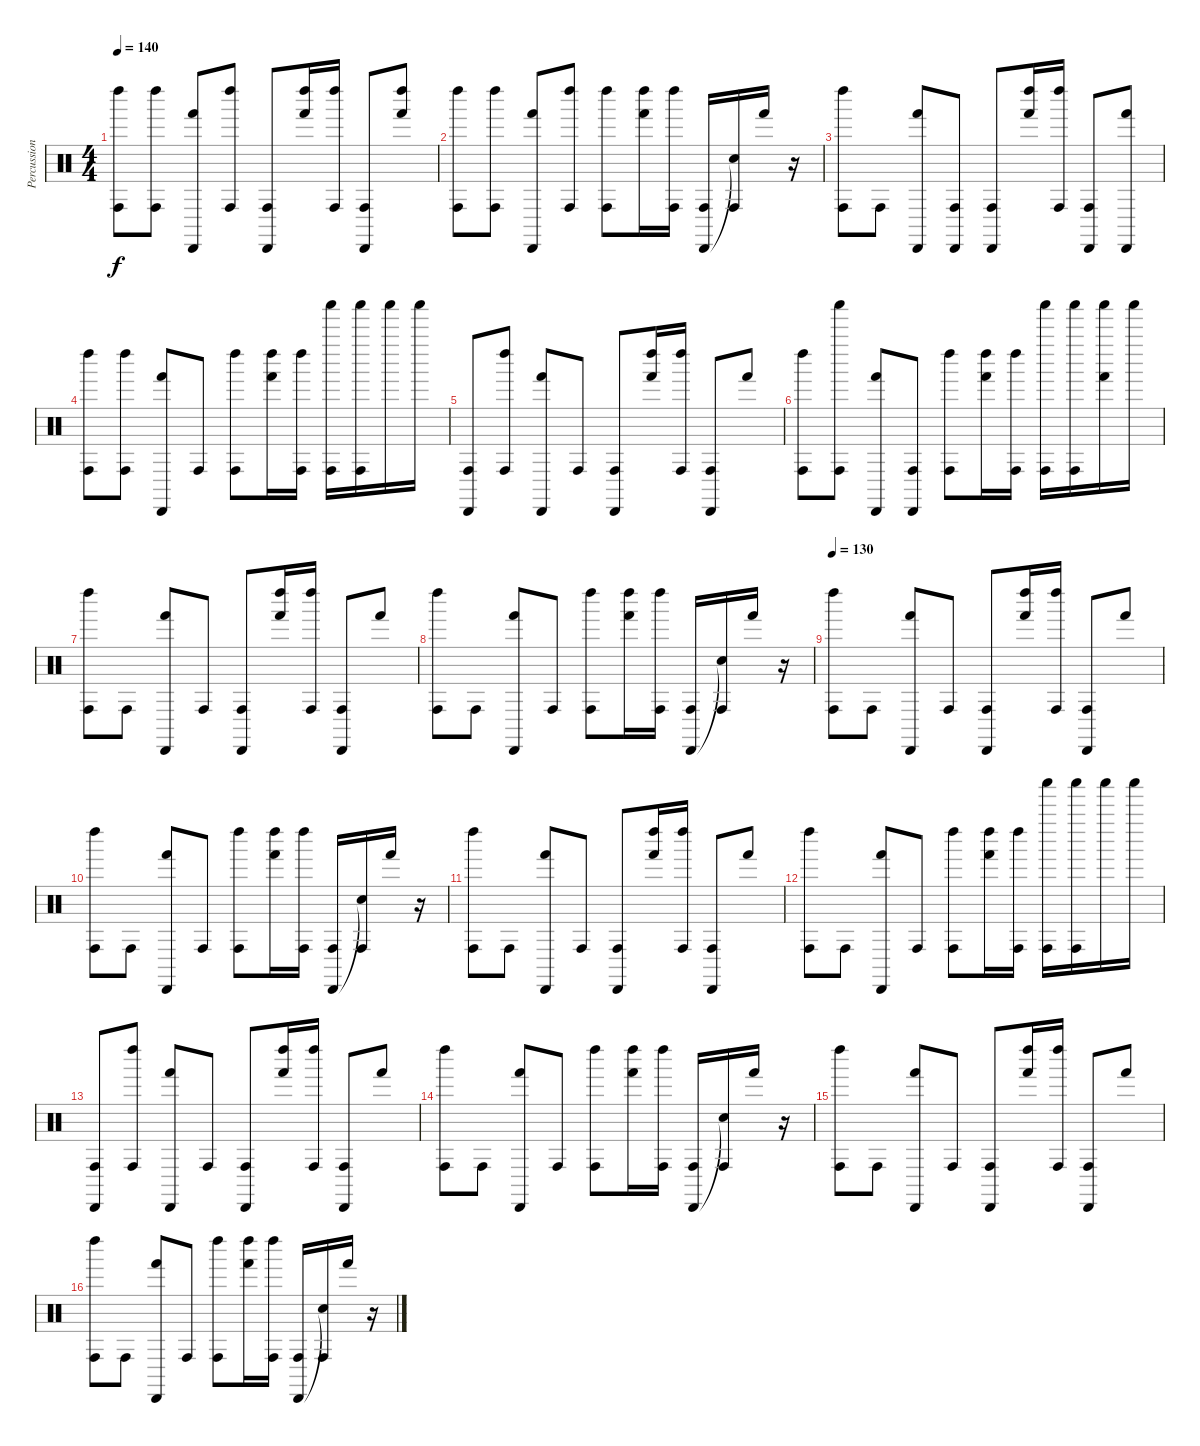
\track ("Percussions" "Percussion") {instrument percussion}
\staff {score}
\articulation defaults
\ts (4 4)
\tempo 140
\clef neutral
\ks c
("Left Maraca (hit)" "Conga high (hit)").8{dy f} ("Left Maraca (hit)" "Conga high (hit)").8 ("Cabasa (hit)" "Hand (hit)").8 ("Left Maraca (hit)" "Conga high (hit)").8 ("Cabasa (hit)" "Conga high (hit)").8 ("Left Maraca (hit)" "Hand (hit)").16 ("Left Maraca (hit)" "Conga high (hit)").16 ("Cabasa (hit)" "Conga high (hit)").8 ("Left Maraca (hit)" "Hand (hit)").8 |
("Left Maraca (hit)" "Conga high (hit)").8 ("Left Maraca (hit)" "Conga high (hit)").8 ("Cabasa (hit)" "Hand (hit)").8 ("Left Maraca (hit)" "Conga high (hit)").8 ("Left Maraca (hit)" "Conga high (hit)").8 ("Left Maraca (hit)" "Hand (hit)").16 ("Left Maraca (hit)" "Conga high (hit)").16 ("Cabasa (hit)" "Conga high (hit)").16 ("Snare (hit)"{t} "Conga high (hit)").16 "Hand (hit)".16 r.16 |
("Left Maraca (hit)" "Conga high (hit)").8 "Conga high (hit)".8 ("Cabasa (hit)" "Hand (hit)").8 ("Cabasa (hit)" "Conga high (hit)").8 ("Cabasa (hit)" "Conga high (hit)").8 ("Left Maraca (hit)" "Hand (hit)").16 ("Left Maraca (hit)" "Conga high (hit)").16 ("Cabasa (hit)" "Conga high (hit)").8 ("Cabasa (hit)" "Hand (hit)").8 |
("Left Maraca (hit)" "Conga high (hit)").8 ("Left Maraca (hit)" "Conga high (hit)").8 ("Cabasa (hit)" "Hand (hit)").8 "Conga high (hit)".8 ("Left Maraca (hit)" "Conga high (hit)").8 ("Left Maraca (hit)" "Hand (hit)").16 ("Left Maraca (hit)" "Conga high (hit)").16 ("Shaker (hit)" "Conga high (hit)").16 ("Shaker (hit)" "Conga high (hit)").16 "Shaker (hit)".16 "Shaker (hit)".16 |
("Cabasa (hit)" "Conga high (hit)").8 ("Left Maraca (hit)" "Conga high (hit)").8 ("Cabasa (hit)" "Hand (hit)").8 "Conga high (hit)".8 ("Cabasa (hit)" "Conga high (hit)").8 ("Left Maraca (hit)" "Hand (hit)").16 ("Left Maraca (hit)" "Conga high (hit)").16 ("Cabasa (hit)" "Conga high (hit)").8 "Hand (hit)".8 |
("Left Maraca (hit)" "Conga high (hit)").8 ("Shaker (hit)" "Conga high (hit)").8 ("Cabasa (hit)" "Hand (hit)").8 ("Cabasa (hit)" "Conga high (hit)").8 ("Left Maraca (hit)" "Conga high (hit)").8 ("Left Maraca (hit)" "Hand (hit)").16 ("Left Maraca (hit)" "Conga high (hit)").16 ("Shaker (hit)" "Conga high (hit)").16 ("Shaker (hit)" "Conga high (hit)").16 ("Shaker (hit)" "Hand (hit)").16 "Shaker (hit)".16 |
("Left Maraca (hit)" "Conga high (hit)").8 "Conga high (hit)".8 ("Cabasa (hit)" "Hand (hit)").8 "Conga high (hit)".8 ("Cabasa (hit)" "Conga high (hit)").8 ("Left Maraca (hit)" "Hand (hit)").16 ("Left Maraca (hit)" "Conga high (hit)").16 ("Cabasa (hit)" "Conga high (hit)").8 "Hand (hit)".8 |
("Left Maraca (hit)" "Conga high (hit)").8 "Conga high (hit)".8 ("Cabasa (hit)" "Hand (hit)").8 "Conga high (hit)".8 ("Left Maraca (hit)" "Conga high (hit)").8 ("Left Maraca (hit)" "Hand (hit)").16 ("Left Maraca (hit)" "Conga high (hit)").16 ("Cabasa (hit)" "Conga high (hit)").16 ("Snare (hit)"{t} "Conga high (hit)").16 "Hand (hit)".16 r.16 |
\tempo 130
("Left Maraca (hit)" "Conga high (hit)").8 "Conga high (hit)".8 ("Cabasa (hit)" "Hand (hit)").8 "Conga high (hit)".8 ("Cabasa (hit)" "Conga high (hit)").8 ("Left Maraca (hit)" "Hand (hit)").16 ("Left Maraca (hit)" "Conga high (hit)").16 ("Cabasa (hit)" "Conga high (hit)").8 "Hand (hit)".8 |
("Left Maraca (hit)" "Conga high (hit)").8 "Conga high (hit)".8 ("Cabasa (hit)" "Hand (hit)").8 "Conga high (hit)".8 ("Left Maraca (hit)" "Conga high (hit)").8 ("Left Maraca (hit)" "Hand (hit)").16 ("Left Maraca (hit)" "Conga high (hit)").16 ("Cabasa (hit)" "Conga high (hit)").16 ("Snare (hit)"{t} "Conga high (hit)").16 "Hand (hit)".16 r.16 |
("Left Maraca (hit)" "Conga high (hit)").8 "Conga high (hit)".8 ("Cabasa (hit)" "Hand (hit)").8 "Conga high (hit)".8 ("Cabasa (hit)" "Conga high (hit)").8 ("Left Maraca (hit)" "Hand (hit)").16 ("Left Maraca (hit)" "Conga high (hit)").16 ("Cabasa (hit)" "Conga high (hit)").8 "Hand (hit)".8 |
("Left Maraca (hit)" "Conga high (hit)").8 "Conga high (hit)".8 ("Cabasa (hit)" "Hand (hit)").8 "Conga high (hit)".8 ("Left Maraca (hit)" "Conga high (hit)").8 ("Left Maraca (hit)" "Hand (hit)").16 ("Left Maraca (hit)" "Conga high (hit)").16 ("Shaker (hit)" "Conga high (hit)").16 ("Shaker (hit)" "Conga high (hit)").16 "Shaker (hit)".16 "Shaker (hit)".16 |
("Cabasa (hit)" "Conga high (hit)").8 ("Left Maraca (hit)" "Conga high (hit)").8 ("Cabasa (hit)" "Hand (hit)").8 "Conga high (hit)".8 ("Cabasa (hit)" "Conga high (hit)").8 ("Left Maraca (hit)" "Hand (hit)").16 ("Left Maraca (hit)" "Conga high (hit)").16 ("Cabasa (hit)" "Conga high (hit)").8 "Hand (hit)".8 |
("Left Maraca (hit)" "Conga high (hit)").8 "Conga high (hit)".8 ("Cabasa (hit)" "Hand (hit)").8 "Conga high (hit)".8 ("Left Maraca (hit)" "Conga high (hit)").8 ("Left Maraca (hit)" "Hand (hit)").16 ("Left Maraca (hit)" "Conga high (hit)").16 ("Cabasa (hit)" "Conga high (hit)").16 ("Snare (hit)"{t} "Conga high (hit)").16 "Hand (hit)".16 r.16 |
("Left Maraca (hit)" "Conga high (hit)").8 "Conga high (hit)".8 ("Cabasa (hit)" "Hand (hit)").8 "Conga high (hit)".8 ("Cabasa (hit)" "Conga high (hit)").8 ("Left Maraca (hit)" "Hand (hit)").16 ("Left Maraca (hit)" "Conga high (hit)").16 ("Cabasa (hit)" "Conga high (hit)").8 "Hand (hit)".8 |
("Left Maraca (hit)" "Conga high (hit)").8 "Conga high (hit)".8 ("Cabasa (hit)" "Hand (hit)").8 "Conga high (hit)".8 ("Left Maraca (hit)" "Conga high (hit)").8 ("Left Maraca (hit)" "Hand (hit)").16 ("Left Maraca (hit)" "Conga high (hit)").16 ("Cabasa (hit)" "Conga high (hit)").16 ("Snare (hit)"{t} "Conga high (hit)").16 "Hand (hit)".16 r.16
